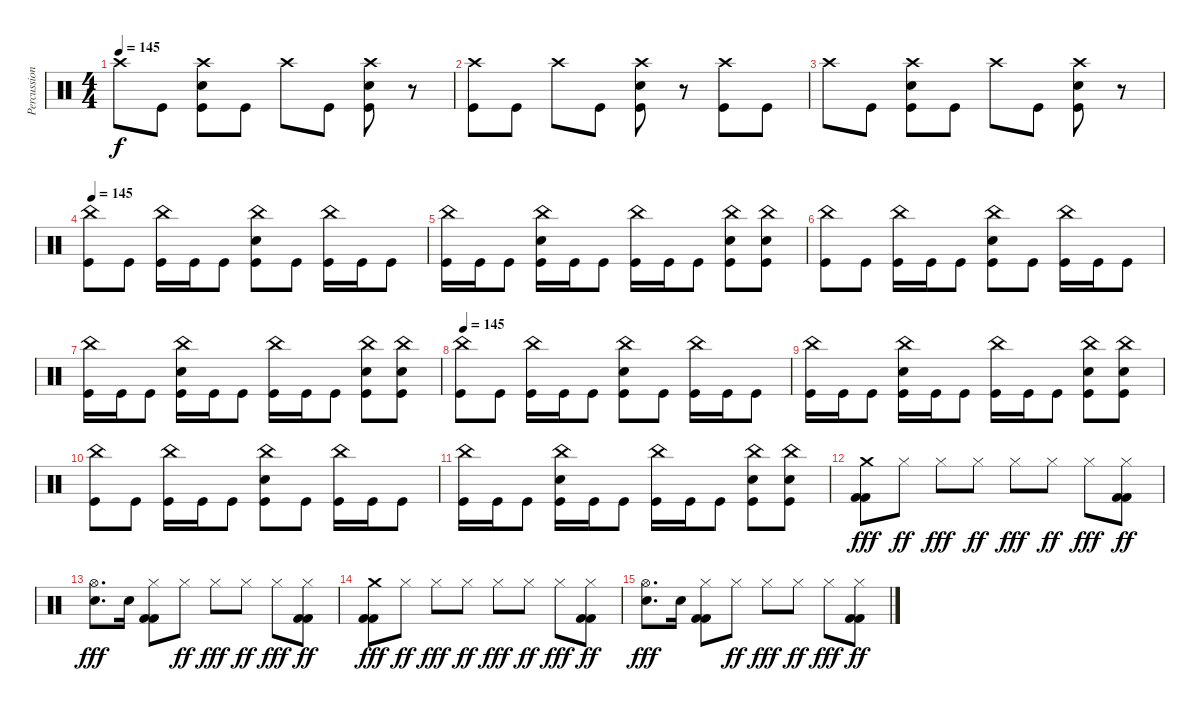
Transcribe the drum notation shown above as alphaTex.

\track ("Percussion" "Percussion") {instrument percussion}
\staff {score}
\articulation defaults
\ts (4 4)
\tempo 145
\clef neutral
\ks c "Crash high (hit)".8{dy f} "Kick (hit)".8
("Crash high (hit)" "Kick (hit)" "Electric Snare (hit)").8 "Kick (hit)".8 "Crash high (hit)".8 "Kick (hit)".8 ("Crash high (hit)" "Kick (hit)" "Electric Snare (hit)").8 r.8 |
("Crash high (hit)" "Kick (hit)").8 "Kick (hit)".8 "Crash high (hit)".8 "Kick (hit)".8 ("Crash high (hit)" "Kick (hit)" "Electric Snare (hit)").8 r.8 ("Crash high (hit)" "Kick (hit)").8 "Kick (hit)".8 |
"Crash high (hit)".8 "Kick (hit)".8 ("Crash high (hit)" "Kick (hit)" "Electric Snare (hit)").8 "Kick (hit)".8 "Crash high (hit)".8 "Kick (hit)".8 ("Crash high (hit)" "Kick (hit)" "Electric Snare (hit)").8 r.8 |
\tempo 145
("China (hit)" "Kick (hit)").8 "Kick (hit)".8 ("China (hit)" "Kick (hit)").16 "Kick (hit)".16 "Kick (hit)".8 ("China (hit)" "Electric Snare (hit)" "Kick (hit)").8 "Kick (hit)".8 ("China (hit)" "Kick (hit)").16 "Kick (hit)".16 "Kick (hit)".8 |
("China (hit)" "Kick (hit)").16 "Kick (hit)".16 "Kick (hit)".8 ("China (hit)" "Electric Snare (hit)" "Kick (hit)").16 "Kick (hit)".16 "Kick (hit)".8 ("China (hit)" "Kick (hit)").16 "Kick (hit)".16 "Kick (hit)".8 ("China (hit)" "Electric Snare (hit)" "Kick (hit)").8 ("China (hit)" "Electric Snare (hit)" "Kick (hit)").8 |
("China (hit)" "Kick (hit)").8 "Kick (hit)".8 ("China (hit)" "Kick (hit)").16 "Kick (hit)".16 "Kick (hit)".8 ("China (hit)" "Electric Snare (hit)" "Kick (hit)").8 "Kick (hit)".8 ("China (hit)" "Kick (hit)").16 "Kick (hit)".16 "Kick (hit)".8 |
("China (hit)" "Kick (hit)").16 "Kick (hit)".16 "Kick (hit)".8 ("China (hit)" "Electric Snare (hit)" "Kick (hit)").16 "Kick (hit)".16 "Kick (hit)".8 ("China (hit)" "Kick (hit)").16 "Kick (hit)".16 "Kick (hit)".8 ("China (hit)" "Electric Snare (hit)" "Kick (hit)").8 ("China (hit)" "Electric Snare (hit)" "Kick (hit)").8 |
\tempo 145
("China (hit)" "Kick (hit)").8 "Kick (hit)".8 ("China (hit)" "Kick (hit)").16 "Kick (hit)".16 "Kick (hit)".8 ("China (hit)" "Electric Snare (hit)" "Kick (hit)").8 "Kick (hit)".8 ("China (hit)" "Kick (hit)").16 "Kick (hit)".16 "Kick (hit)".8 |
("China (hit)" "Kick (hit)").16 "Kick (hit)".16 "Kick (hit)".8 ("China (hit)" "Electric Snare (hit)" "Kick (hit)").16 "Kick (hit)".16 "Kick (hit)".8 ("China (hit)" "Kick (hit)").16 "Kick (hit)".16 "Kick (hit)".8 ("China (hit)" "Electric Snare (hit)" "Kick (hit)").8 ("China (hit)" "Electric Snare (hit)" "Kick (hit)").8 |
("China (hit)" "Kick (hit)").8 "Kick (hit)".8 ("China (hit)" "Kick (hit)").16 "Kick (hit)".16 "Kick (hit)".8 ("China (hit)" "Electric Snare (hit)" "Kick (hit)").8 "Kick (hit)".8 ("China (hit)" "Kick (hit)").16 "Kick (hit)".16 "Kick (hit)".8 |
("China (hit)" "Kick (hit)").16 "Kick (hit)".16 "Kick (hit)".8 ("China (hit)" "Electric Snare (hit)" "Kick (hit)").16 "Kick (hit)".16 "Kick (hit)".8 ("China (hit)" "Kick (hit)").16 "Kick (hit)".16 "Kick (hit)".8 ("China (hit)" "Electric Snare (hit)" "Kick (hit)").8 ("China (hit)" "Electric Snare (hit)" "Kick (hit)").8 |
("Kick (hit) 2" "Kick (hit) 2" "Crash medium (hit)").8{dy fff} "Hi-Hat (closed)".8{dy ff} "Hi-Hat (closed)".8{dy fff} "Hi-Hat (closed)".8{dy ff} "Hi-Hat (closed)".8{dy fff} "Hi-Hat (closed)".8{dy ff} "Hi-Hat (closed)".8{dy fff} ("Kick (hit) 2" "Kick (hit) 2" "Hi-Hat (closed)").8{dy ff} |
("Electric Snare (hit)" "Hi-Hat (open)").8{d dy fff} "Electric Snare (hit)".16 ("Kick (hit) 2" "Kick (hit) 2" "Hi-Hat (closed)").8 "Hi-Hat (closed)".8{dy ff} "Hi-Hat (closed)".8{dy fff} "Hi-Hat (closed)".8{dy ff} "Hi-Hat (closed)".8{dy fff} ("Kick (hit) 2" "Kick (hit) 2" "Hi-Hat (closed)").8{dy ff} |
("Kick (hit) 2" "Kick (hit) 2" "Crash medium (hit)").8{dy fff} "Hi-Hat (closed)".8{dy ff} "Hi-Hat (closed)".8{dy fff} "Hi-Hat (closed)".8{dy ff} "Hi-Hat (closed)".8{dy fff} "Hi-Hat (closed)".8{dy ff} "Hi-Hat (closed)".8{dy fff} ("Kick (hit) 2" "Kick (hit) 2" "Hi-Hat (closed)").8{dy ff} |
("Electric Snare (hit)" "Hi-Hat (open)").8{d dy fff} "Electric Snare (hit)".16 ("Kick (hit) 2" "Kick (hit) 2" "Hi-Hat (closed)").8 "Hi-Hat (closed)".8{dy ff} "Hi-Hat (closed)".8{dy fff} "Hi-Hat (closed)".8{dy ff} "Hi-Hat (closed)".8{dy fff} ("Kick (hit) 2" "Kick (hit) 2" "Hi-Hat (closed)").8{dy ff}
